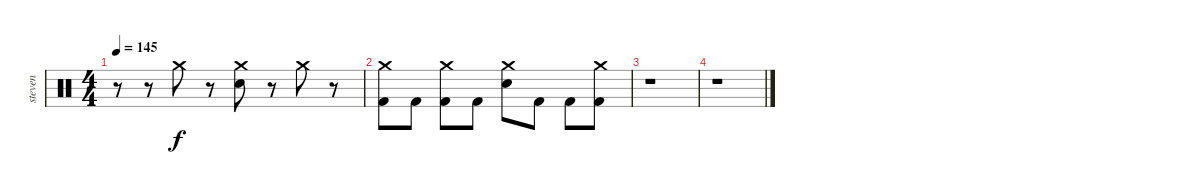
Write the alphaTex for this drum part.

\track ("steven" "steven") {instrument percussion}
\staff {score}
\articulation defaults
\ts (4 4)
\tempo 145
\clef neutral
\ks c
r.8{dy f} r.8 "Crash medium (hit)".8 r.8 ("Crash medium (hit)" "Electric Snare (hit)").8 r.8 "Crash medium (hit)".8 r.8 |
("Crash medium (hit)" "Kick (hit) 2").8 "Kick (hit) 2".8 ("Crash medium (hit)" "Kick (hit) 2").8 "Kick (hit) 2".8 ("Crash medium (hit)" "Electric Snare (hit)").8 "Kick (hit) 2".8 "Kick (hit) 2".8 ("Crash medium (hit)" "Kick (hit) 2").8 |
r.1 |
r.1
